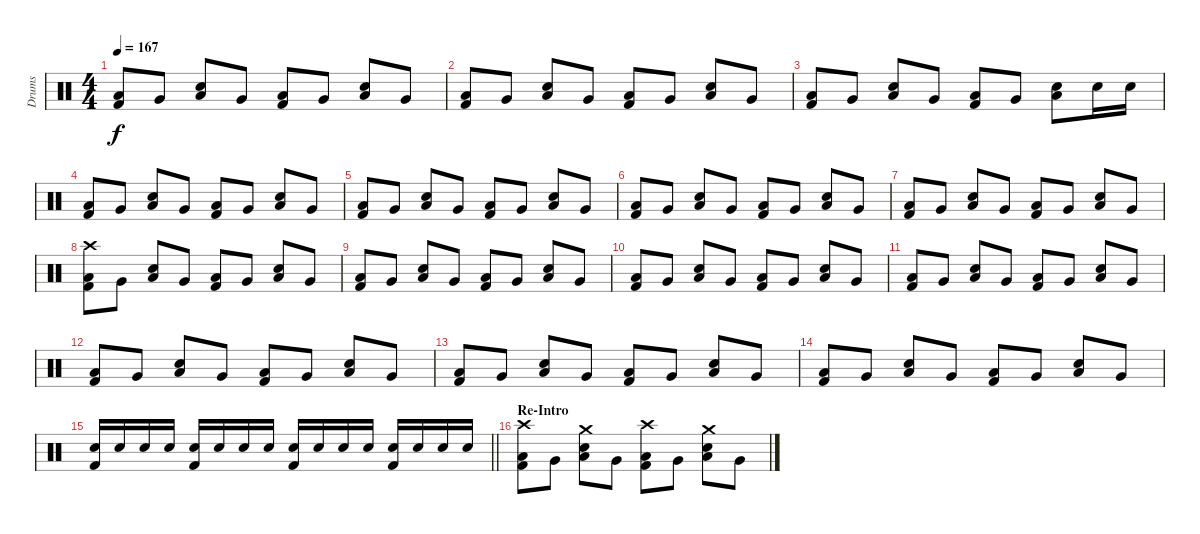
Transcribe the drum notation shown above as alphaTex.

\track ("Drums" "Drums") {instrument percussion}
\staff {score}
\articulation defaults
\ts (4 4)
\tempo 167
\clef neutral
\ks c
("Low Floor Tom (hit)" "Kick (hit) 2").8{dy f} "Very Low Tom (hit)".8 ("Low Floor Tom (hit)" "Snare (hit) 2").8 "Very Low Tom (hit)".8 ("Low Floor Tom (hit)" "Kick (hit) 2").8 "Very Low Tom (hit)".8 ("Low Floor Tom (hit)" "Snare (hit) 2").8 "Very Low Tom (hit)".8 |
("Low Floor Tom (hit)" "Kick (hit) 2").8 "Very Low Tom (hit)".8 ("Low Floor Tom (hit)" "Snare (hit) 2").8 "Very Low Tom (hit)".8 ("Low Floor Tom (hit)" "Kick (hit) 2").8 "Very Low Tom (hit)".8 ("Low Floor Tom (hit)" "Snare (hit) 2").8 "Very Low Tom (hit)".8 |
("Low Floor Tom (hit)" "Kick (hit) 2").8 "Very Low Tom (hit)".8 ("Low Floor Tom (hit)" "Snare (hit) 2").8 "Very Low Tom (hit)".8 ("Low Floor Tom (hit)" "Kick (hit) 2").8 "Very Low Tom (hit)".8 ("Low Floor Tom (hit)" "Snare (hit) 2").8 "Snare (hit) 2".16 "Snare (hit) 2".16 |
("Low Floor Tom (hit)" "Kick (hit) 2").8 "Very Low Tom (hit)".8 ("Low Floor Tom (hit)" "Snare (hit) 2").8 "Very Low Tom (hit)".8 ("Low Floor Tom (hit)" "Kick (hit) 2").8 "Very Low Tom (hit)".8 ("Low Floor Tom (hit)" "Snare (hit) 2").8 "Very Low Tom (hit)".8 |
("Low Floor Tom (hit)" "Kick (hit) 2").8 "Very Low Tom (hit)".8 ("Low Floor Tom (hit)" "Snare (hit) 2").8 "Very Low Tom (hit)".8 ("Low Floor Tom (hit)" "Kick (hit) 2").8 "Very Low Tom (hit)".8 ("Low Floor Tom (hit)" "Snare (hit) 2").8 "Very Low Tom (hit)".8 |
("Low Floor Tom (hit)" "Kick (hit) 2").8 "Very Low Tom (hit)".8 ("Low Floor Tom (hit)" "Snare (hit) 2").8 "Very Low Tom (hit)".8 ("Low Floor Tom (hit)" "Kick (hit) 2").8 "Very Low Tom (hit)".8 ("Low Floor Tom (hit)" "Snare (hit) 2").8 "Very Low Tom (hit)".8 |
("Low Floor Tom (hit)" "Kick (hit) 2").8 "Very Low Tom (hit)".8 ("Low Floor Tom (hit)" "Snare (hit) 2").8 "Very Low Tom (hit)".8 ("Low Floor Tom (hit)" "Kick (hit) 2").8 "Very Low Tom (hit)".8 ("Low Floor Tom (hit)" "Snare (hit) 2").8 "Very Low Tom (hit)".8 |
("Crash high (hit)" "Low Floor Tom (hit)" "Kick (hit) 2").8 "Very Low Tom (hit)".8 ("Low Floor Tom (hit)" "Snare (hit) 2").8 "Very Low Tom (hit)".8 ("Low Floor Tom (hit)" "Kick (hit) 2").8 "Very Low Tom (hit)".8 ("Low Floor Tom (hit)" "Snare (hit) 2").8 "Very Low Tom (hit)".8 |
("Low Floor Tom (hit)" "Kick (hit) 2").8 "Very Low Tom (hit)".8 ("Low Floor Tom (hit)" "Snare (hit) 2").8 "Very Low Tom (hit)".8 ("Low Floor Tom (hit)" "Kick (hit) 2").8 "Very Low Tom (hit)".8 ("Low Floor Tom (hit)" "Snare (hit) 2").8 "Very Low Tom (hit)".8 |
("Low Floor Tom (hit)" "Kick (hit) 2").8 "Very Low Tom (hit)".8 ("Low Floor Tom (hit)" "Snare (hit) 2").8 "Very Low Tom (hit)".8 ("Low Floor Tom (hit)" "Kick (hit) 2").8 "Very Low Tom (hit)".8 ("Low Floor Tom (hit)" "Snare (hit) 2").8 "Very Low Tom (hit)".8 |
("Low Floor Tom (hit)" "Kick (hit) 2").8 "Very Low Tom (hit)".8 ("Low Floor Tom (hit)" "Snare (hit) 2").8 "Very Low Tom (hit)".8 ("Low Floor Tom (hit)" "Kick (hit) 2").8 "Very Low Tom (hit)".8 ("Low Floor Tom (hit)" "Snare (hit) 2").8 "Very Low Tom (hit)".8 |
("Low Floor Tom (hit)" "Kick (hit) 2").8 "Very Low Tom (hit)".8 ("Low Floor Tom (hit)" "Snare (hit) 2").8 "Very Low Tom (hit)".8 ("Low Floor Tom (hit)" "Kick (hit) 2").8 "Very Low Tom (hit)".8 ("Low Floor Tom (hit)" "Snare (hit) 2").8 "Very Low Tom (hit)".8 |
("Low Floor Tom (hit)" "Kick (hit) 2").8 "Very Low Tom (hit)".8 ("Low Floor Tom (hit)" "Snare (hit) 2").8 "Very Low Tom (hit)".8 ("Low Floor Tom (hit)" "Kick (hit) 2").8 "Very Low Tom (hit)".8 ("Low Floor Tom (hit)" "Snare (hit) 2").8 "Very Low Tom (hit)".8 |
("Low Floor Tom (hit)" "Kick (hit) 2").8 "Very Low Tom (hit)".8 ("Low Floor Tom (hit)" "Snare (hit) 2").8 "Very Low Tom (hit)".8 ("Low Floor Tom (hit)" "Kick (hit) 2").8 "Very Low Tom (hit)".8 ("Low Floor Tom (hit)" "Snare (hit) 2").8 "Very Low Tom (hit)".8 |
\barLineRight lightlight
("Snare (hit) 2" "Kick (hit) 2").16 "Snare (hit) 2".16 "Snare (hit) 2".16 "Snare (hit) 2".16 ("Snare (hit) 2" "Kick (hit) 2").16 "Snare (hit) 2".16 "Snare (hit) 2".16 "Snare (hit) 2".16 ("Snare (hit) 2" "Kick (hit) 2").16 "Snare (hit) 2".16 "Snare (hit) 2".16 "Snare (hit) 2".16 ("Snare (hit) 2" "Kick (hit) 2").16 "Snare (hit) 2".16 "Snare (hit) 2".16 "Snare (hit) 2".16 |
\section ("" "Re-Intro")
("Crash high (hit)" "Low Floor Tom (hit)" "Kick (hit) 2").8 "Very Low Tom (hit)".8 ("Crash medium (hit)" "Low Floor Tom (hit)" "Snare (hit) 2").8 "Very Low Tom (hit)".8 ("Crash high (hit)" "Low Floor Tom (hit)" "Kick (hit) 2").8 "Very Low Tom (hit)".8 ("Crash medium (hit)" "Low Floor Tom (hit)" "Snare (hit) 2").8 "Very Low Tom (hit)".8
